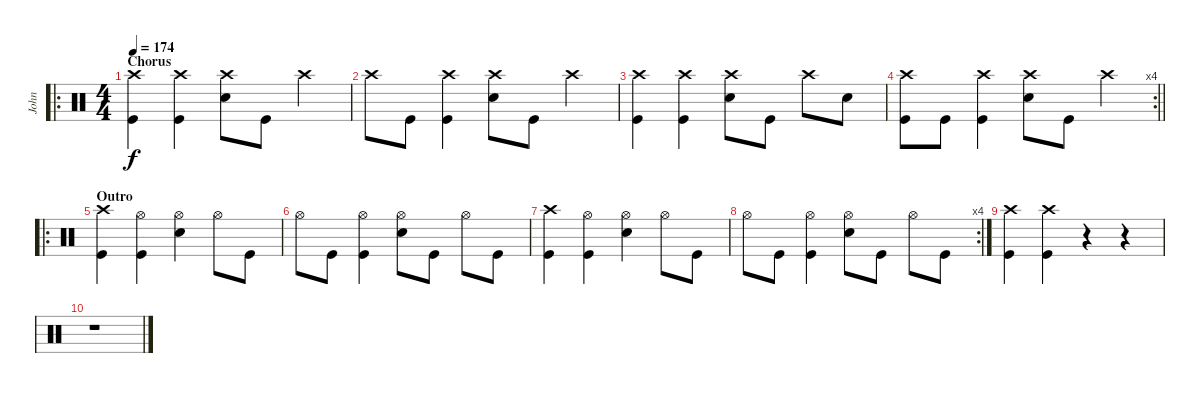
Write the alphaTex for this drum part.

\track ("John" "John") {instrument percussion}
\staff {score}
\articulation defaults
\ro
\ts (4 4)
\section ("" "Chorus")
\tempo 174
\clef neutral
\ks c
("Crash high (hit)" "Kick (hit)").4{dy f} ("Crash high (hit)" "Kick (hit)").4 ("Crash high (hit)" "Snare (hit) 2").8 "Kick (hit)".8 "Crash high (hit)".4 |
"Crash high (hit)".8 "Kick (hit)".8 ("Crash high (hit)" "Kick (hit)").4 ("Crash high (hit)" "Snare (hit) 2").8 "Kick (hit)".8 "Crash high (hit)".4 |
("Crash high (hit)" "Kick (hit)").4 ("Crash high (hit)" "Kick (hit)").4 ("Crash high (hit)" "Snare (hit) 2").8 "Kick (hit)".8 "Crash high (hit)".8 "Snare (hit) 2".8 |
\rc 4
\barLineRight lightlight
("Crash high (hit)" "Kick (hit)").8 "Kick (hit)".8 ("Crash high (hit)" "Kick (hit)").4 ("Crash high (hit)" "Snare (hit) 2").8 "Kick (hit)".8 "Crash high (hit)".4 |
\ro
\section ("" "Outro")
("Kick (hit)" "Crash high (hit)").4 ("Hi-Hat (open)" "Kick (hit)").4 ("Hi-Hat (open)" "Snare (hit) 2").4 "Hi-Hat (open)".8 "Kick (hit)".8 |
"Hi-Hat (open)".8 "Kick (hit)".8 ("Hi-Hat (open)" "Kick (hit)").4 ("Hi-Hat (open)" "Snare (hit) 2").8 "Kick (hit)".8 "Hi-Hat (open)".8 "Kick (hit)".8 |
("Kick (hit)" "Crash high (hit)").4 ("Hi-Hat (open)" "Kick (hit)").4 ("Hi-Hat (open)" "Snare (hit) 2").4 "Hi-Hat (open)".8 "Kick (hit)".8 |
\rc 4 "Hi-Hat (open)".8 "Kick (hit)".8
("Hi-Hat (open)" "Kick (hit)").4 ("Hi-Hat (open)" "Snare (hit) 2").8 "Kick (hit)".8 "Hi-Hat (open)".8 "Kick (hit)".8 |
("Crash high (hit)" "Kick (hit)").4 ("Crash high (hit)" "Kick (hit)").4 r.4 r.4 |
r.1
